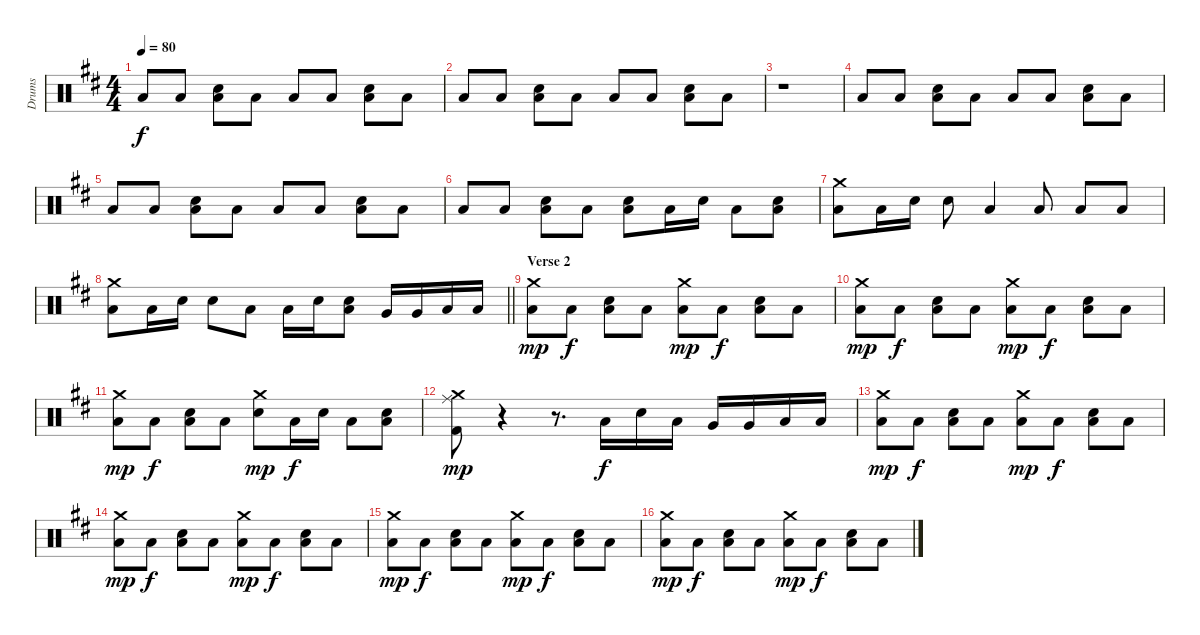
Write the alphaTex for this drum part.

\track ("Drums" "Drums") {instrument percussion}
\staff {score}
\articulation defaults
\ts (4 4)
\tempo 80
\clef neutral
\ks d "Low Floor Tom (hit)".8{dy f} "Low Floor Tom (hit)".8
("Low Tom (hit)" "Snare (hit) 2").8 "Low Floor Tom (hit)".8 "Low Floor Tom (hit)".8 "Low Floor Tom (hit)".8 ("Low Tom (hit)" "Snare (hit) 2").8 "Low Floor Tom (hit)".8 |
"Low Floor Tom (hit)".8 "Low Floor Tom (hit)".8 ("Low Tom (hit)" "Snare (hit) 2").8 "Low Floor Tom (hit)".8 "Low Floor Tom (hit)".8 "Low Floor Tom (hit)".8 ("Low Tom (hit)" "Snare (hit) 2").8 "Low Floor Tom (hit)".8 |
r.1 |
"Low Floor Tom (hit)".8 "Low Floor Tom (hit)".8 ("Low Tom (hit)" "Snare (hit) 2").8 "Low Floor Tom (hit)".8 "Low Floor Tom (hit)".8 "Low Floor Tom (hit)".8 ("Low Tom (hit)" "Snare (hit) 2").8 "Low Floor Tom (hit)".8 |
"Low Floor Tom (hit)".8 "Low Floor Tom (hit)".8 ("Low Tom (hit)" "Snare (hit) 2").8 "Low Floor Tom (hit)".8 "Low Floor Tom (hit)".8 "Low Floor Tom (hit)".8 ("Low Tom (hit)" "Snare (hit) 2").8 "Low Floor Tom (hit)".8 |
"Low Floor Tom (hit)".8 "Low Floor Tom (hit)".8 ("Low Tom (hit)" "Snare (hit) 2").8 "Low Floor Tom (hit)".8 ("Low Floor Tom (hit)" "Snare (hit) 2").8 "Low Floor Tom (hit)".16 "Snare (hit) 2".16 "Low Tom (hit)".8 ("Low Floor Tom (hit)" "Snare (hit) 2").8 |
("Crash medium (hit)" "Low Floor Tom (hit)").8 "Low Floor Tom (hit)".16 "Snare (hit) 2".16 "Snare (hit) 2".8 "Low Floor Tom (hit)".4 "Low Floor Tom (hit)".8 "Low Floor Tom (hit)".8 "Low Floor Tom (hit)".8 |
\barLineRight lightlight
("Crash medium (hit)" "Low Floor Tom (hit)").8 "Low Floor Tom (hit)".16 "Snare (hit) 2".16 "Snare (hit) 2".8 "Low Floor Tom (hit)".8 "Low Floor Tom (hit)".16 "Snare (hit) 2".16 ("Low Floor Tom (hit)" "Snare (hit) 2").8 "Very Low Tom (hit)".16 "Very Low Tom (hit)".16 "Low Floor Tom (hit)".16 "Low Floor Tom (hit)".16 |
\section ("" "Verse 2")
("Crash medium (hit)" "Low Floor Tom (hit)").8{dy mp} "Low Floor Tom (hit)".8{dy f} ("Low Tom (hit)" "Snare (hit) 2").8 "Low Floor Tom (hit)".8 ("Crash medium (hit)" "Low Floor Tom (hit)").8{dy mp} "Low Floor Tom (hit)".8{dy f} ("Low Tom (hit)" "Snare (hit) 2").8 "Low Floor Tom (hit)".8 |
("Crash medium (hit)" "Low Floor Tom (hit)").8{dy mp} "Low Floor Tom (hit)".8{dy f} ("Low Tom (hit)" "Snare (hit) 2").8 "Low Floor Tom (hit)".8 ("Crash medium (hit)" "Low Floor Tom (hit)").8{dy mp} "Low Floor Tom (hit)".8{dy f} ("Low Tom (hit)" "Snare (hit) 2").8 "Low Floor Tom (hit)".8 |
("Crash medium (hit)" "Low Floor Tom (hit)").8{dy mp} "Low Floor Tom (hit)".8{dy f} ("Low Tom (hit)" "Snare (hit) 2").8 "Low Floor Tom (hit)".8 ("Crash medium (hit)" "Snare (hit) 2").8{dy mp} "Low Floor Tom (hit)".16{dy f} "Snare (hit) 2".16 "Low Tom (hit)".8 ("Low Floor Tom (hit)" "Snare (hit) 2").8 |
("Crash medium (hit)" "Ride (middle)" "Kick (hit) 2").8{dy mp} r.4 r.8{d} "Low Tom (hit)".16{dy f} "Snare (hit) 2".16 "Low Tom (hit)".16 "Very Low Tom (hit)".16 "Very Low Tom (hit)".16 "Low Floor Tom (hit)".16 "Low Floor Tom (hit)".16 |
("Crash medium (hit)" "Low Floor Tom (hit)").8{dy mp} "Low Floor Tom (hit)".8{dy f} ("Low Tom (hit)" "Snare (hit) 2").8 "Low Floor Tom (hit)".8 ("Crash medium (hit)" "Low Floor Tom (hit)").8{dy mp} "Low Floor Tom (hit)".8{dy f} ("Low Tom (hit)" "Snare (hit) 2").8 "Low Floor Tom (hit)".8 |
("Crash medium (hit)" "Low Floor Tom (hit)").8{dy mp} "Low Floor Tom (hit)".8{dy f} ("Low Tom (hit)" "Snare (hit) 2").8 "Low Floor Tom (hit)".8 ("Crash medium (hit)" "Low Floor Tom (hit)").8{dy mp} "Low Floor Tom (hit)".8{dy f} ("Low Tom (hit)" "Snare (hit) 2").8 "Low Floor Tom (hit)".8 |
("Crash medium (hit)" "Low Floor Tom (hit)").8{dy mp} "Low Floor Tom (hit)".8{dy f} ("Low Tom (hit)" "Snare (hit) 2").8 "Low Floor Tom (hit)".8 ("Crash medium (hit)" "Low Floor Tom (hit)").8{dy mp} "Low Floor Tom (hit)".8{dy f} ("Low Tom (hit)" "Snare (hit) 2").8 "Low Floor Tom (hit)".8 |
("Crash medium (hit)" "Low Floor Tom (hit)").8{dy mp} "Low Floor Tom (hit)".8{dy f} ("Low Tom (hit)" "Snare (hit) 2").8 "Low Floor Tom (hit)".8 ("Crash medium (hit)" "Low Floor Tom (hit)").8{dy mp} "Low Floor Tom (hit)".8{dy f} ("Low Tom (hit)" "Snare (hit) 2").8 "Low Floor Tom (hit)".8
